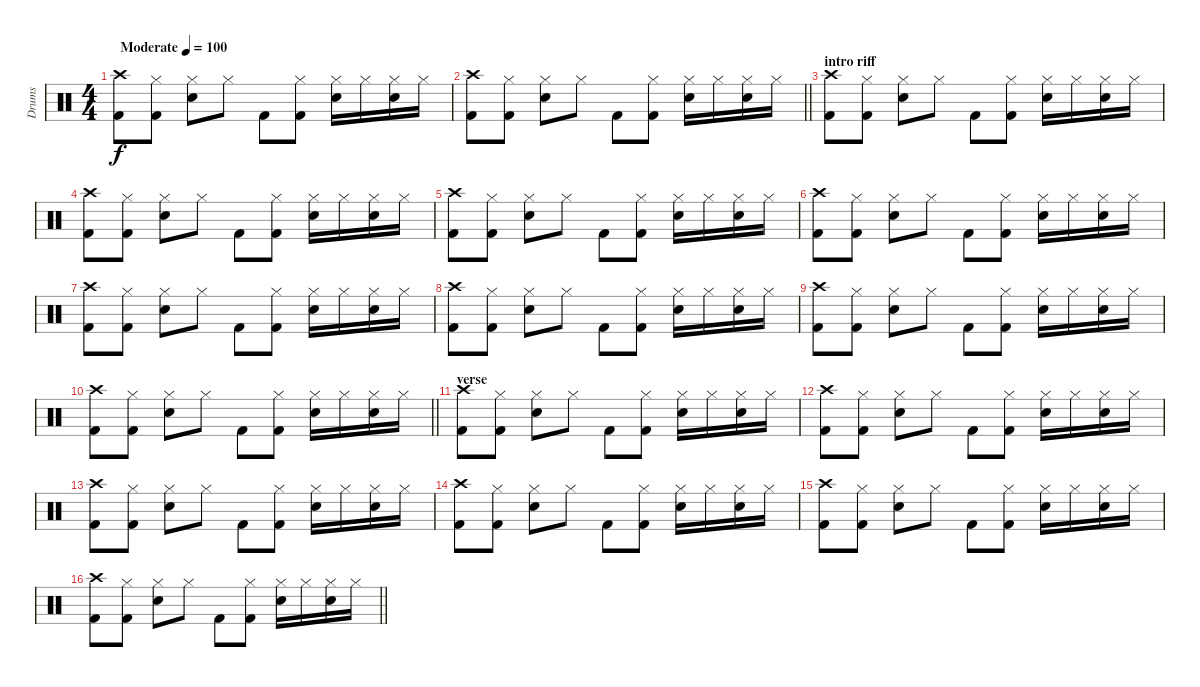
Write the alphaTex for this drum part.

\track ("Drums" "Drums") {instrument percussion}
\staff {score}
\articulation defaults
\ts (4 4)
\tempo (100 "Moderate")
\clef neutral
\ks c
("Crash high (hit)" "Kick (hit) 2").8{dy f} ("Hi-Hat (closed)" "Kick (hit) 2").8 ("Hi-Hat (closed)" "Snare (hit) 2").8 "Hi-Hat (closed)".8 "Kick (hit) 2".8 ("Hi-Hat (closed)" "Kick (hit) 2").8 ("Hi-Hat (closed)" "Snare (hit) 2").16 "Hi-Hat (closed)".16 ("Hi-Hat (closed)" "Snare (hit) 2").16 "Hi-Hat (closed)".16 |
\barLineRight lightlight
("Crash high (hit)" "Kick (hit) 2").8 ("Hi-Hat (closed)" "Kick (hit) 2").8 ("Hi-Hat (closed)" "Snare (hit) 2").8 "Hi-Hat (closed)".8 "Kick (hit) 2".8 ("Hi-Hat (closed)" "Kick (hit) 2").8 ("Hi-Hat (closed)" "Snare (hit) 2").16 "Hi-Hat (closed)".16 ("Hi-Hat (closed)" "Snare (hit) 2").16 "Hi-Hat (closed)".16 |
\section ("" "intro riff")
("Crash high (hit)" "Kick (hit) 2").8 ("Hi-Hat (closed)" "Kick (hit) 2").8 ("Hi-Hat (closed)" "Snare (hit) 2").8 "Hi-Hat (closed)".8 "Kick (hit) 2".8 ("Hi-Hat (closed)" "Kick (hit) 2").8 ("Hi-Hat (closed)" "Snare (hit) 2").16 "Hi-Hat (closed)".16 ("Hi-Hat (closed)" "Snare (hit) 2").16 "Hi-Hat (closed)".16 |
("Crash high (hit)" "Kick (hit) 2").8 ("Hi-Hat (closed)" "Kick (hit) 2").8 ("Hi-Hat (closed)" "Snare (hit) 2").8 "Hi-Hat (closed)".8 "Kick (hit) 2".8 ("Hi-Hat (closed)" "Kick (hit) 2").8 ("Hi-Hat (closed)" "Snare (hit) 2").16 "Hi-Hat (closed)".16 ("Hi-Hat (closed)" "Snare (hit) 2").16 "Hi-Hat (closed)".16 |
("Crash high (hit)" "Kick (hit) 2").8 ("Hi-Hat (closed)" "Kick (hit) 2").8 ("Hi-Hat (closed)" "Snare (hit) 2").8 "Hi-Hat (closed)".8 "Kick (hit) 2".8 ("Hi-Hat (closed)" "Kick (hit) 2").8 ("Hi-Hat (closed)" "Snare (hit) 2").16 "Hi-Hat (closed)".16 ("Hi-Hat (closed)" "Snare (hit) 2").16 "Hi-Hat (closed)".16 |
("Crash high (hit)" "Kick (hit) 2").8 ("Hi-Hat (closed)" "Kick (hit) 2").8 ("Hi-Hat (closed)" "Snare (hit) 2").8 "Hi-Hat (closed)".8 "Kick (hit) 2".8 ("Hi-Hat (closed)" "Kick (hit) 2").8 ("Hi-Hat (closed)" "Snare (hit) 2").16 "Hi-Hat (closed)".16 ("Hi-Hat (closed)" "Snare (hit) 2").16 "Hi-Hat (closed)".16 |
("Crash high (hit)" "Kick (hit) 2").8 ("Hi-Hat (closed)" "Kick (hit) 2").8 ("Hi-Hat (closed)" "Snare (hit) 2").8 "Hi-Hat (closed)".8 "Kick (hit) 2".8 ("Hi-Hat (closed)" "Kick (hit) 2").8 ("Hi-Hat (closed)" "Snare (hit) 2").16 "Hi-Hat (closed)".16 ("Hi-Hat (closed)" "Snare (hit) 2").16 "Hi-Hat (closed)".16 |
("Crash high (hit)" "Kick (hit) 2").8 ("Hi-Hat (closed)" "Kick (hit) 2").8 ("Hi-Hat (closed)" "Snare (hit) 2").8 "Hi-Hat (closed)".8 "Kick (hit) 2".8 ("Hi-Hat (closed)" "Kick (hit) 2").8 ("Hi-Hat (closed)" "Snare (hit) 2").16 "Hi-Hat (closed)".16 ("Hi-Hat (closed)" "Snare (hit) 2").16 "Hi-Hat (closed)".16 |
("Crash high (hit)" "Kick (hit) 2").8 ("Hi-Hat (closed)" "Kick (hit) 2").8 ("Hi-Hat (closed)" "Snare (hit) 2").8 "Hi-Hat (closed)".8 "Kick (hit) 2".8 ("Hi-Hat (closed)" "Kick (hit) 2").8 ("Hi-Hat (closed)" "Snare (hit) 2").16 "Hi-Hat (closed)".16 ("Hi-Hat (closed)" "Snare (hit) 2").16 "Hi-Hat (closed)".16 |
\barLineRight lightlight
("Crash high (hit)" "Kick (hit) 2").8 ("Hi-Hat (closed)" "Kick (hit) 2").8 ("Hi-Hat (closed)" "Snare (hit) 2").8 "Hi-Hat (closed)".8 "Kick (hit) 2".8 ("Hi-Hat (closed)" "Kick (hit) 2").8 ("Hi-Hat (closed)" "Snare (hit) 2").16 "Hi-Hat (closed)".16 ("Hi-Hat (closed)" "Snare (hit) 2").16 "Hi-Hat (closed)".16 |
\section ("" "verse")
("Crash high (hit)" "Kick (hit) 2").8 ("Hi-Hat (closed)" "Kick (hit) 2").8 ("Hi-Hat (closed)" "Snare (hit) 2").8 "Hi-Hat (closed)".8 "Kick (hit) 2".8 ("Hi-Hat (closed)" "Kick (hit) 2").8 ("Hi-Hat (closed)" "Snare (hit) 2").16 "Hi-Hat (closed)".16 ("Hi-Hat (closed)" "Snare (hit) 2").16 "Hi-Hat (closed)".16 |
("Crash high (hit)" "Kick (hit) 2").8 ("Hi-Hat (closed)" "Kick (hit) 2").8 ("Hi-Hat (closed)" "Snare (hit) 2").8 "Hi-Hat (closed)".8 "Kick (hit) 2".8 ("Hi-Hat (closed)" "Kick (hit) 2").8 ("Hi-Hat (closed)" "Snare (hit) 2").16 "Hi-Hat (closed)".16 ("Hi-Hat (closed)" "Snare (hit) 2").16 "Hi-Hat (closed)".16 |
("Crash high (hit)" "Kick (hit) 2").8 ("Hi-Hat (closed)" "Kick (hit) 2").8 ("Hi-Hat (closed)" "Snare (hit) 2").8 "Hi-Hat (closed)".8 "Kick (hit) 2".8 ("Hi-Hat (closed)" "Kick (hit) 2").8 ("Hi-Hat (closed)" "Snare (hit) 2").16 "Hi-Hat (closed)".16 ("Hi-Hat (closed)" "Snare (hit) 2").16 "Hi-Hat (closed)".16 |
("Crash high (hit)" "Kick (hit) 2").8 ("Hi-Hat (closed)" "Kick (hit) 2").8 ("Hi-Hat (closed)" "Snare (hit) 2").8 "Hi-Hat (closed)".8 "Kick (hit) 2".8 ("Hi-Hat (closed)" "Kick (hit) 2").8 ("Hi-Hat (closed)" "Snare (hit) 2").16 "Hi-Hat (closed)".16 ("Hi-Hat (closed)" "Snare (hit) 2").16 "Hi-Hat (closed)".16 |
("Crash high (hit)" "Kick (hit) 2").8 ("Hi-Hat (closed)" "Kick (hit) 2").8 ("Hi-Hat (closed)" "Snare (hit) 2").8 "Hi-Hat (closed)".8 "Kick (hit) 2".8 ("Hi-Hat (closed)" "Kick (hit) 2").8 ("Hi-Hat (closed)" "Snare (hit) 2").16 "Hi-Hat (closed)".16 ("Hi-Hat (closed)" "Snare (hit) 2").16 "Hi-Hat (closed)".16 |
\barLineRight lightlight
("Crash high (hit)" "Kick (hit) 2").8 ("Hi-Hat (closed)" "Kick (hit) 2").8 ("Hi-Hat (closed)" "Snare (hit) 2").8 "Hi-Hat (closed)".8 "Kick (hit) 2".8 ("Hi-Hat (closed)" "Kick (hit) 2").8 ("Hi-Hat (closed)" "Snare (hit) 2").16 "Hi-Hat (closed)".16 ("Hi-Hat (closed)" "Snare (hit) 2").16 "Hi-Hat (closed)".16
